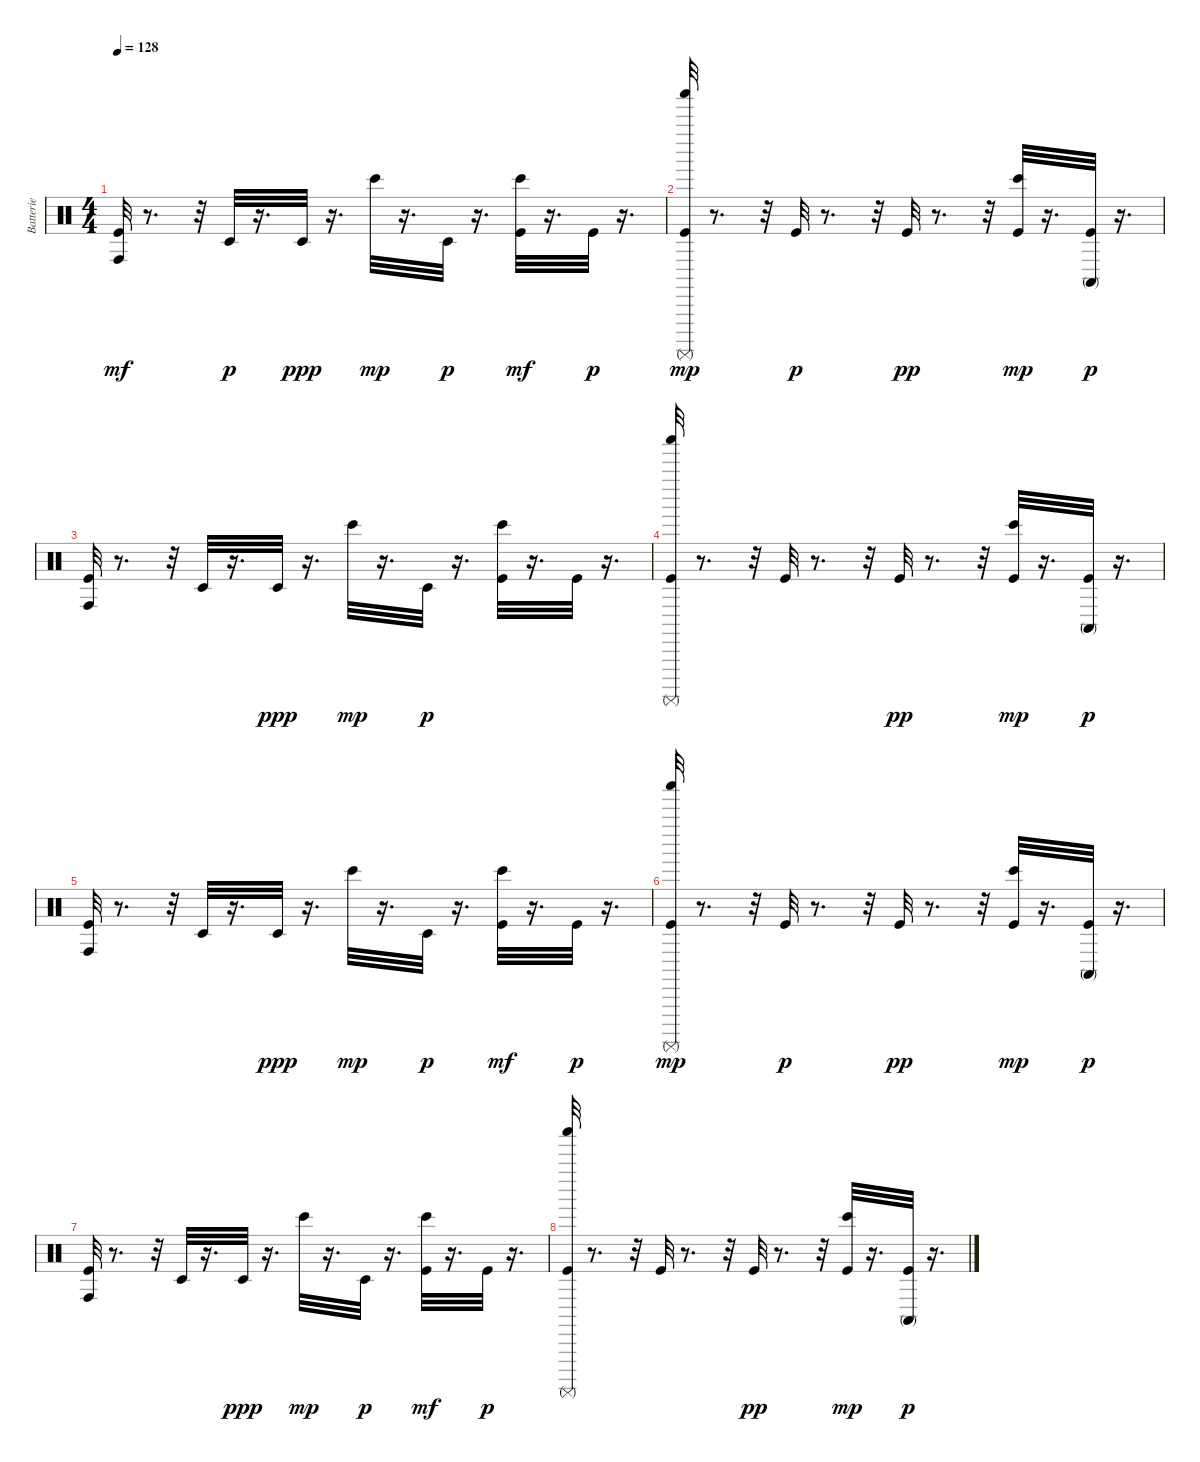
\track ("Batterie" "Batterie") {instrument percussion}
\staff {score}
\articulation defaults
\ts (4 4)
\tempo 128
\clef neutral
\ks c
("Kick (hit)" "Conga high (hit)").32{dy mf} r.8{d} r.32 "Timbale low (hit)".32{dy p} r.16{d} "Timbale low (hit)".32{dy ppp} r.16{d} "Bongo High (hit)".32{dy mp} r.16{d} "Timbale low (hit)".32{dy p} r.16{d} ("Kick (hit)" "Bongo High (hit)").32{dy mf} r.16{d} "Kick (hit)".32{dy p} r.16{d} |
("Shaker (hit)" "Kick (hit)" "Surdo (mute)").32{dy mp} r.8{d} r.32 "Kick (hit)".32{dy p} r.8{d} r.32 "Kick (hit)".32{dy pp} r.8{d} r.32 ("Kick (hit)" "Bongo High (hit)").32{dy mp} r.16{d} ("Kick (hit)" "Conga high (mute)").32{dy p} r.16{d} |
("Conga high (hit)" "Kick (hit)").32 r.8{d} r.32 "Timbale low (hit)".32 r.16{d} "Timbale low (hit)".32{dy ppp} r.16{d} "Bongo High (hit)".32{dy mp} r.16{d} "Timbale low (hit)".32{dy p} r.16{d} ("Bongo High (hit)" "Kick (hit)").32 r.16{d} "Kick (hit)".32 r.16{d} |
("Surdo (mute)" "Shaker (hit)" "Kick (hit)").32 r.8{d} r.32 "Kick (hit)".32 r.8{d} r.32 "Kick (hit)".32{dy pp} r.8{d} r.32 ("Kick (hit)" "Bongo High (hit)").32{dy mp} r.16{d} ("Conga high (mute)" "Kick (hit)").32{dy p} r.16{d} |
("Conga high (hit)" "Kick (hit)").32 r.8{d} r.32 "Timbale low (hit)".32 r.16{d} "Timbale low (hit)".32{dy ppp} r.16{d} "Bongo High (hit)".32{dy mp} r.16{d} "Timbale low (hit)".32{dy p} r.16{d} ("Kick (hit)" "Bongo High (hit)").32{dy mf} r.16{d} "Kick (hit)".32{dy p} r.16{d} |
("Kick (hit)" "Surdo (mute)" "Shaker (hit)").32{dy mp} r.8{d} r.32 "Kick (hit)".32{dy p} r.8{d} r.32 "Kick (hit)".32{dy pp} r.8{d} r.32 ("Kick (hit)" "Bongo High (hit)").32{dy mp} r.16{d} ("Kick (hit)" "Conga high (mute)").32{dy p} r.16{d} |
("Conga high (hit)" "Kick (hit)").32 r.8{d} r.32 "Timbale low (hit)".32 r.16{d} "Timbale low (hit)".32{dy ppp} r.16{d} "Bongo High (hit)".32{dy mp} r.16{d} "Timbale low (hit)".32{dy p} r.16{d} ("Kick (hit)" "Bongo High (hit)").32{dy mf} r.16{d} "Kick (hit)".32{dy p} r.16{d} |
("Surdo (mute)" "Shaker (hit)" "Kick (hit)").32 r.8{d} r.32 "Kick (hit)".32 r.8{d} r.32 "Kick (hit)".32{dy pp} r.8{d} r.32 ("Kick (hit)" "Bongo High (hit)").32{dy mp} r.16{d} ("Conga high (mute)" "Kick (hit)").32{dy p} r.16{d}
